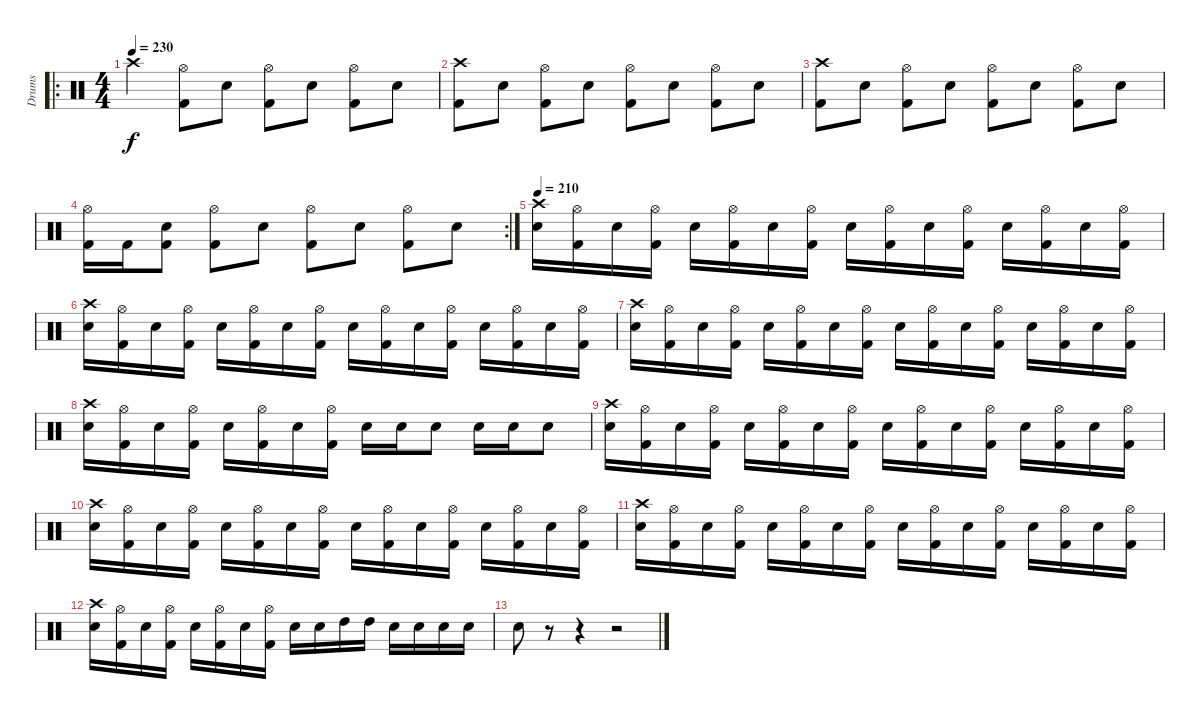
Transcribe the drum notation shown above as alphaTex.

\track ("Drums" "Drums") {instrument percussion}
\staff {score}
\articulation defaults
\ro
\ts (4 4)
\tempo 230
\clef neutral
\ks c "Crash high (hit)".4{dy f}
("Hi-Hat (open)" "Kick (hit) 2").8 "Snare (hit) 2".8 ("Hi-Hat (open)" "Kick (hit) 2").8 "Snare (hit) 2".8 ("Hi-Hat (open)" "Kick (hit) 2").8 "Snare (hit) 2".8 |
("Crash high (hit)" "Kick (hit) 2").8 "Snare (hit) 2".8 ("Hi-Hat (open)" "Kick (hit) 2").8 "Snare (hit) 2".8 ("Hi-Hat (open)" "Kick (hit) 2").8 "Snare (hit) 2".8 ("Hi-Hat (open)" "Kick (hit) 2").8 "Snare (hit) 2".8 |
("Crash high (hit)" "Kick (hit) 2").8 "Snare (hit) 2".8 ("Hi-Hat (open)" "Kick (hit) 2").8 "Snare (hit) 2".8 ("Hi-Hat (open)" "Kick (hit) 2").8 "Snare (hit) 2".8 ("Hi-Hat (open)" "Kick (hit) 2").8 "Snare (hit) 2".8 |
\rc 2
("Hi-Hat (open)" "Kick (hit) 2").16 "Kick (hit) 2".16 ("Snare (hit) 2" "Kick (hit) 2").8 ("Hi-Hat (open)" "Kick (hit) 2").8 "Snare (hit) 2".8 ("Hi-Hat (open)" "Kick (hit) 2").8 "Snare (hit) 2".8 ("Hi-Hat (open)" "Kick (hit) 2").8 "Snare (hit) 2".8 |
\tempo 210
("Crash high (hit)" "Snare (hit) 2").16 ("Hi-Hat (open)" "Kick (hit) 2").16 "Snare (hit) 2".16 ("Hi-Hat (open)" "Kick (hit) 2").16 "Snare (hit) 2".16 ("Hi-Hat (open)" "Kick (hit) 2").16 "Snare (hit) 2".16 ("Hi-Hat (open)" "Kick (hit) 2").16 "Snare (hit) 2".16 ("Hi-Hat (open)" "Kick (hit) 2").16 "Snare (hit) 2".16 ("Hi-Hat (open)" "Kick (hit) 2").16 "Snare (hit) 2".16 ("Hi-Hat (open)" "Kick (hit) 2").16 "Snare (hit) 2".16 ("Hi-Hat (open)" "Kick (hit) 2").16 |
("Crash high (hit)" "Snare (hit) 2").16 ("Hi-Hat (open)" "Kick (hit) 2").16 "Snare (hit) 2".16 ("Hi-Hat (open)" "Kick (hit) 2").16 "Snare (hit) 2".16 ("Hi-Hat (open)" "Kick (hit) 2").16 "Snare (hit) 2".16 ("Hi-Hat (open)" "Kick (hit) 2").16 "Snare (hit) 2".16 ("Hi-Hat (open)" "Kick (hit) 2").16 "Snare (hit) 2".16 ("Hi-Hat (open)" "Kick (hit) 2").16 "Snare (hit) 2".16 ("Hi-Hat (open)" "Kick (hit) 2").16 "Snare (hit) 2".16 ("Hi-Hat (open)" "Kick (hit) 2").16 |
("Crash high (hit)" "Snare (hit) 2").16 ("Hi-Hat (open)" "Kick (hit) 2").16 "Snare (hit) 2".16 ("Hi-Hat (open)" "Kick (hit) 2").16 "Snare (hit) 2".16 ("Hi-Hat (open)" "Kick (hit) 2").16 "Snare (hit) 2".16 ("Hi-Hat (open)" "Kick (hit) 2").16 "Snare (hit) 2".16 ("Hi-Hat (open)" "Kick (hit) 2").16 "Snare (hit) 2".16 ("Hi-Hat (open)" "Kick (hit) 2").16 "Snare (hit) 2".16 ("Hi-Hat (open)" "Kick (hit) 2").16 "Snare (hit) 2".16 ("Hi-Hat (open)" "Kick (hit) 2").16 |
("Crash high (hit)" "Snare (hit) 2").16 ("Hi-Hat (open)" "Kick (hit) 2").16 "Snare (hit) 2".16 ("Hi-Hat (open)" "Kick (hit) 2").16 "Snare (hit) 2".16 ("Hi-Hat (open)" "Kick (hit) 2").16 "Snare (hit) 2".16 ("Hi-Hat (open)" "Kick (hit) 2").16 "Snare (hit) 2".16 "Snare (hit) 2".16 "Snare (hit) 2".8 "Snare (hit) 2".16 "Snare (hit) 2".16 "Snare (hit) 2".8 |
("Crash high (hit)" "Snare (hit) 2").16 ("Hi-Hat (open)" "Kick (hit) 2").16 "Snare (hit) 2".16 ("Hi-Hat (open)" "Kick (hit) 2").16 "Snare (hit) 2".16 ("Hi-Hat (open)" "Kick (hit) 2").16 "Snare (hit) 2".16 ("Hi-Hat (open)" "Kick (hit) 2").16 "Snare (hit) 2".16 ("Hi-Hat (open)" "Kick (hit) 2").16 "Snare (hit) 2".16 ("Hi-Hat (open)" "Kick (hit) 2").16 "Snare (hit) 2".16 ("Hi-Hat (open)" "Kick (hit) 2").16 "Snare (hit) 2".16 ("Hi-Hat (open)" "Kick (hit) 2").16 |
("Crash high (hit)" "Snare (hit) 2").16 ("Hi-Hat (open)" "Kick (hit) 2").16 "Snare (hit) 2".16 ("Hi-Hat (open)" "Kick (hit) 2").16 "Snare (hit) 2".16 ("Hi-Hat (open)" "Kick (hit) 2").16 "Snare (hit) 2".16 ("Hi-Hat (open)" "Kick (hit) 2").16 "Snare (hit) 2".16 ("Hi-Hat (open)" "Kick (hit) 2").16 "Snare (hit) 2".16 ("Hi-Hat (open)" "Kick (hit) 2").16 "Snare (hit) 2".16 ("Hi-Hat (open)" "Kick (hit) 2").16 "Snare (hit) 2".16 ("Hi-Hat (open)" "Kick (hit) 2").16 |
("Crash high (hit)" "Snare (hit) 2").16 ("Hi-Hat (open)" "Kick (hit) 2").16 "Snare (hit) 2".16 ("Hi-Hat (open)" "Kick (hit) 2").16 "Snare (hit) 2".16 ("Hi-Hat (open)" "Kick (hit) 2").16 "Snare (hit) 2".16 ("Hi-Hat (open)" "Kick (hit) 2").16 "Snare (hit) 2".16 ("Hi-Hat (open)" "Kick (hit) 2").16 "Snare (hit) 2".16 ("Hi-Hat (open)" "Kick (hit) 2").16 "Snare (hit) 2".16 ("Hi-Hat (open)" "Kick (hit) 2").16 "Snare (hit) 2".16 ("Hi-Hat (open)" "Kick (hit) 2").16 |
("Crash high (hit)" "Snare (hit) 2").16 ("Hi-Hat (open)" "Kick (hit) 2").16 "Snare (hit) 2".16 ("Hi-Hat (open)" "Kick (hit) 2").16 "Snare (hit) 2".16 ("Hi-Hat (open)" "Kick (hit) 2").16 "Snare (hit) 2".16 ("Hi-Hat (open)" "Kick (hit) 2").16 "Snare (hit) 2".16 "Snare (hit) 2".16 "High Tom (hit)".16 "High Tom (hit)".16 "Snare (hit) 2".16 "Snare (hit) 2".16 "Snare (hit) 2".16 "Snare (hit) 2".16 |
"Snare (hit) 2".8 r.8 r.4 r.2
